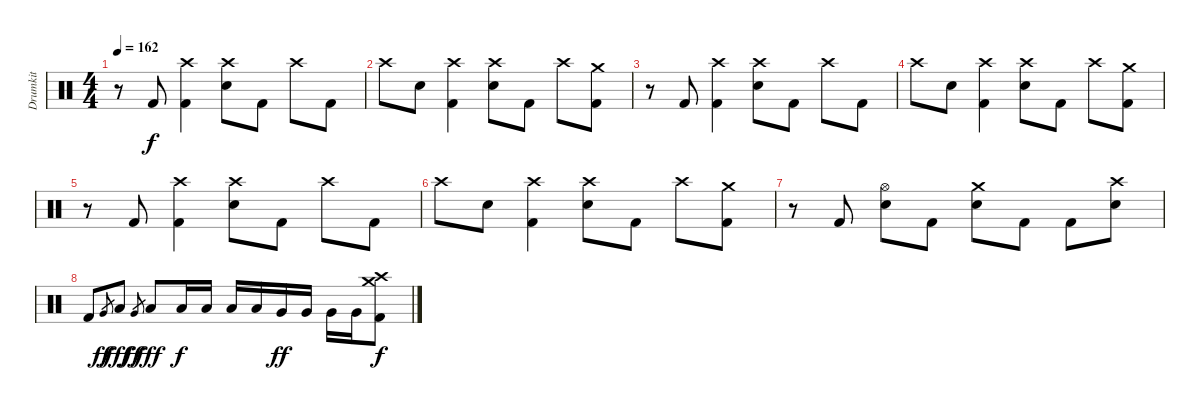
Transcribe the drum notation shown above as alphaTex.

\track ("Drumkit" "Drumkit") {instrument percussion}
\staff {score}
\articulation defaults
\ts (4 4)
\tempo 162
\clef neutral
\ks c
r.8{dy f} "Kick (hit) 2".8 ("Crash high (hit)" "Kick (hit) 2").4 ("Crash high (hit)" "Electric Snare (hit)").8 "Kick (hit) 2".8 "Crash high (hit)".8 "Kick (hit) 2".8 |
"Crash high (hit)".8 "Electric Snare (hit)".8 ("Crash high (hit)" "Kick (hit) 2").4 ("Crash high (hit)" "Electric Snare (hit)").8 "Kick (hit) 2".8 "Crash high (hit)".8 ("Crash medium (hit)" "Kick (hit) 2").8 |
r.8 "Kick (hit) 2".8 ("Crash high (hit)" "Kick (hit) 2").4 ("Crash high (hit)" "Electric Snare (hit)").8 "Kick (hit) 2".8 "Crash high (hit)".8 "Kick (hit) 2".8 |
"Crash high (hit)".8 "Electric Snare (hit)".8 ("Crash high (hit)" "Kick (hit) 2").4 ("Crash high (hit)" "Electric Snare (hit)").8 "Kick (hit) 2".8 "Crash high (hit)".8 ("Crash medium (hit)" "Kick (hit) 2").8 |
r.8 "Kick (hit) 2".8 ("Crash high (hit)" "Kick (hit) 2").4 ("Crash high (hit)" "Electric Snare (hit)").8 "Kick (hit) 2".8 "Crash high (hit)".8 "Kick (hit) 2".8 |
"Crash high (hit)".8 "Electric Snare (hit)".8 ("Crash high (hit)" "Kick (hit) 2").4 ("Crash high (hit)" "Electric Snare (hit)").8 "Kick (hit) 2".8 "Crash high (hit)".8 ("Crash medium (hit)" "Kick (hit) 2").8 |
r.8 "Kick (hit) 2".8 ("Hi-Hat (open)" "Electric Snare (hit)").8 "Kick (hit) 2".8 ("Crash medium (hit)" "Electric Snare (hit)").8 "Kick (hit) 2".8 "Kick (hit) 2".8 ("Crash high (hit)" "Electric Snare (hit)").8 |
"Kick (hit) 2".8 "Very Low Tom (hit)".8{gr dy ff} "Low Floor Tom (hit)".8{dy fff} "Very Low Tom (hit)".8{gr dy ff} "Low Floor Tom (hit)".8{dy fff} "Low Tom (hit)".16{dy f} "Low Tom (hit)".16 "Low Tom (hit)".16 "Low Tom (hit)".16 "Very Low Tom (hit)".16{dy ff} "Very Low Tom (hit)".16 "Very Low Tom (hit)".16 "Very Low Tom (hit)".16 ("Crash high (hit)" "Crash medium (hit)" "Kick (hit) 2").8{dy f}
